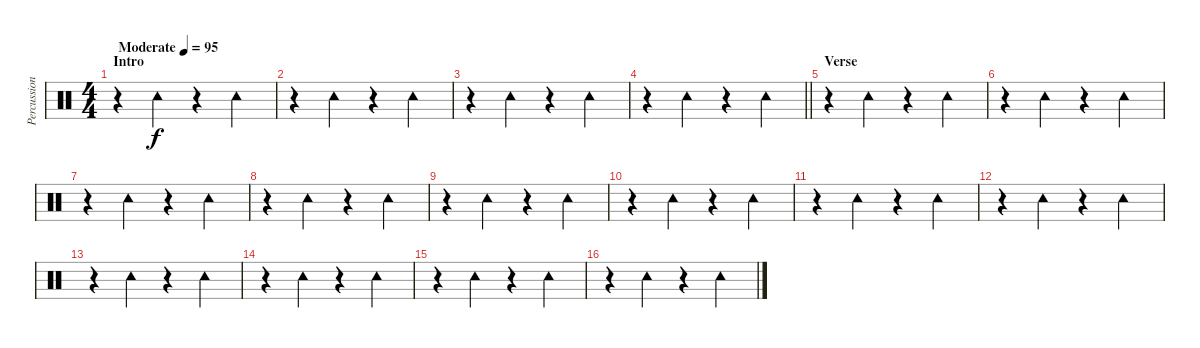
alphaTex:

\track ("Percussioni" "Percussion") {instrument percussion}
\staff {score}
\articulation defaults
\ts (4 4)
\section ("" "Intro")
\tempo (95 "Moderate")
\clef neutral
\ks c
r.4{dy f volume 8} "Tambourine (hit)".4 r.4 "Tambourine (hit)".4 |
r.4 "Tambourine (hit)".4 r.4 "Tambourine (hit)".4 |
r.4 "Tambourine (hit)".4 r.4 "Tambourine (hit)".4 |
\barLineRight lightlight
r.4 "Tambourine (hit)".4 r.4 "Tambourine (hit)".4 |
\section ("" "Verse")
r.4 "Tambourine (hit)".4 r.4 "Tambourine (hit)".4 |
r.4 "Tambourine (hit)".4 r.4 "Tambourine (hit)".4 |
r.4 "Tambourine (hit)".4 r.4 "Tambourine (hit)".4 |
r.4 "Tambourine (hit)".4 r.4 "Tambourine (hit)".4 |
r.4 "Tambourine (hit)".4 r.4 "Tambourine (hit)".4 |
r.4 "Tambourine (hit)".4 r.4 "Tambourine (hit)".4 |
r.4 "Tambourine (hit)".4 r.4 "Tambourine (hit)".4 |
r.4 "Tambourine (hit)".4 r.4 "Tambourine (hit)".4 |
r.4 "Tambourine (hit)".4 r.4 "Tambourine (hit)".4 |
r.4 "Tambourine (hit)".4 r.4 "Tambourine (hit)".4 |
r.4 "Tambourine (hit)".4 r.4 "Tambourine (hit)".4 |
r.4 "Tambourine (hit)".4 r.4 "Tambourine (hit)".4
